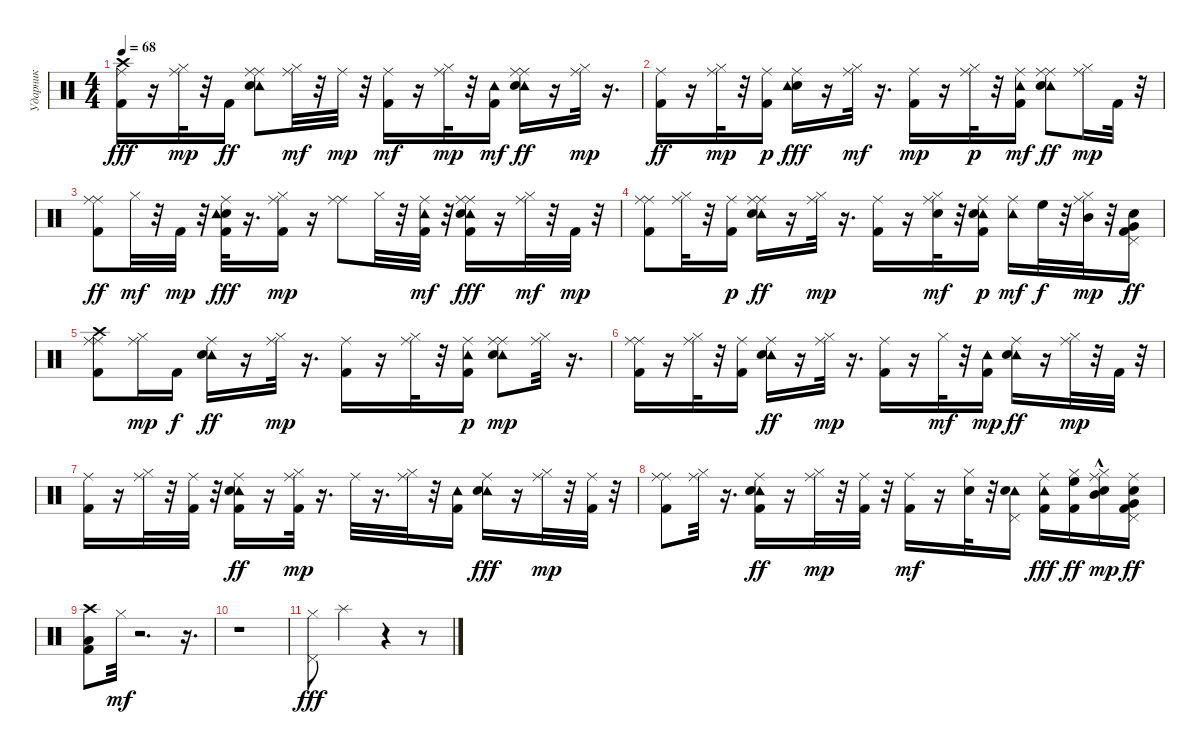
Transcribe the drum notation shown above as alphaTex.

\track ("Ударник" "Ударник") {instrument percussion}
\staff {score}
\articulation defaults
\ts (4 4)
\tempo 68
\clef neutral
\ks c
("Ride (middle)" "Kick (hit) 2" "Crash high (hit)").16{dy fff} r.16 ("Ride (middle)" "Hi-Hat (closed)").32{dy mp} r.32 "Kick (hit) 2".16{dy ff} ("Ride (middle)" "Ride (middle)" "Tambourine (hit)" "Electric Snare (hit)").8 ("Ride (middle)" "Hi-Hat (closed)").32{dy mf} r.32 "Ride (middle)".32{dy mp} r.32 ("Ride (middle)" "Kick (hit) 2").16{dy mf} r.16 ("Ride (middle)" "Hi-Hat (closed)").32{dy mp} r.32 ("Tambourine (hit)" "Kick (hit) 2").16{dy mf} ("Ride (middle)" "Ride (middle)" "Tambourine (hit)" "Electric Snare (hit)").16{dy ff} r.16 ("Ride (middle)" "Hi-Hat (closed)").32{dy mp} r.16{d} |
("Ride (middle)" "Kick (hit) 2").16{dy ff} r.16 ("Ride (middle)" "Hi-Hat (closed)").32{dy mp} r.32 ("Kick (hit) 2" "Ride (middle)").16{dy p} ("Ride (middle)" "Electric Snare (hit)" "Tambourine (hit)").16{dy fff} r.16 ("Ride (middle)" "Hi-Hat (closed)").32{dy mf} r.16{d} ("Ride (middle)" "Kick (hit) 2").16{dy mp} r.16 ("Hi-Hat (closed)" "Ride (middle)").32{dy p} r.32 ("Kick (hit) 2" "Ride (middle)" "Tambourine (hit)").16{dy mf} ("Ride (middle)" "Ride (middle)" "Tambourine (hit)" "Electric Snare (hit)").8{dy ff} ("Ride (middle)" "Hi-Hat (closed)").16{dy mp} "Kick (hit) 2".32 r.32 |
("Ride (middle)" "Ride (middle)" "Kick (hit) 2").8{dy ff} "Hi-Hat (closed)".32{dy mf} r.32 "Kick (hit) 2".32{dy mp} r.32 ("Ride (middle)" "Electric Snare (hit)" "Kick (hit) 2" "Tambourine (hit)").32{dy fff} r.16{d} ("Kick (hit) 2" "Hi-Hat (closed)" "Ride (middle)").16{dy mp} r.16 ("Ride (middle)" "Ride (middle)").8 "Hi-Hat (closed)".32 r.32 ("Kick (hit) 2" "Ride (middle)" "Tambourine (hit)").32{dy mf} r.32 ("Ride (middle)" "Kick (hit) 2" "Ride (middle)" "Tambourine (hit)" "Electric Snare (hit)").16{dy fff} r.16 ("Ride (middle)" "Hi-Hat (closed)").32{dy mf} r.32 "Kick (hit) 2".32{dy mp} r.32 |
("Kick (hit) 2" "Ride (middle)" "Ride (middle)").8 ("Ride (middle)" "Hi-Hat (closed)").32 r.32 ("Kick (hit) 2" "Ride (middle)").16{dy p} ("Ride (middle)" "Tambourine (hit)" "Ride (middle)" "Electric Snare (hit)").16{dy ff} r.16 ("Hi-Hat (closed)" "Ride (middle)").32{dy mp} r.16{d} ("Ride (middle)" "Kick (hit) 2").16 r.16 ("Ride (middle)" "Hi-Hat (closed)" "Electric Snare (hit)").32{dy mf} r.32 ("Kick (hit) 2" "Ride (middle)" "Tambourine (hit)" "Electric Snare (hit)").16{dy p} ("Tambourine (hit)" "Ride (middle)").16{dy mf} "High Floor Tom (hit)".32{dy f} r.32 ("Mid Tom (hit)" "Ride (middle)" "Hi-Hat (closed)").32{dy mp} r.32 ("Kick (hit) 2" "Pedal Hi-Hat (hit)" "Electric Snare (hit)" "Very Low Tom (hit)").16{dy ff} |
("Ride (middle)" "Ride (middle)" "Kick (hit) 2" "Crash high (hit)").8 ("Hi-Hat (closed)" "Ride (middle)").16{dy mp} "Kick (hit) 2".16{dy f} ("Ride (middle)" "Tambourine (hit)" "Electric Snare (hit)").16{dy ff} r.16 ("Hi-Hat (closed)" "Ride (middle)").32{dy mp} r.16{d} ("Kick (hit) 2" "Ride (middle)").16 r.16 ("Hi-Hat (closed)" "Ride (middle)").32 r.32 ("Kick (hit) 2" "Ride (middle)" "Tambourine (hit)").16{dy p} ("Tambourine (hit)" "Ride (middle)" "Ride (middle)" "Electric Snare (hit)").8{dy mp} ("Hi-Hat (closed)" "Ride (middle)").32 r.16{d} |
("Ride (middle)" "Kick (hit) 2" "Ride (middle)").16 r.16 ("Hi-Hat (closed)" "Ride (middle)").32 r.32 ("Ride (middle)" "Kick (hit) 2").16 ("Tambourine (hit)" "Ride (middle)" "Electric Snare (hit)").16{dy ff} r.16 ("Ride (middle)" "Hi-Hat (closed)").32{dy mp} r.16{d} ("Kick (hit) 2" "Ride (middle)").16 r.16 "Hi-Hat (closed)".32{dy mf} r.32 ("Kick (hit) 2" "Tambourine (hit)").16{dy mp} ("Tambourine (hit)" "Ride (middle)" "Electric Snare (hit)").16{dy ff} r.16 ("Ride (middle)" "Hi-Hat (closed)").32{dy mp} r.32 "Kick (hit) 2".32 r.32 |
("Kick (hit) 2" "Ride (middle)").16 r.16 ("Ride (middle)" "Hi-Hat (closed)").32 r.32 ("Ride (middle)" "Kick (hit) 2").32 r.32 ("Kick (hit) 2" "Ride (middle)" "Tambourine (hit)" "Electric Snare (hit)").16{dy ff} r.16 ("Hi-Hat (closed)" "Kick (hit) 2" "Ride (middle)").32{dy mp} r.16{d} "Ride (middle)".32 r.16{d} ("Ride (middle)" "Hi-Hat (closed)").32 r.32 ("Kick (hit) 2" "Tambourine (hit)").16 ("Ride (middle)" "Tambourine (hit)" "Electric Snare (hit)").16{dy fff} r.16 ("Ride (middle)" "Hi-Hat (closed)").32{dy mp} r.32 ("Kick (hit) 2" "Ride (middle)").32 r.32 |
("Kick (hit) 2" "Ride (middle)" "Ride (middle)").8 ("Ride (middle)" "Hi-Hat (closed)").32 r.16{d} ("Ride (middle)" "Tambourine (hit)" "Kick (hit) 2" "Electric Snare (hit)").16{dy ff} r.16 ("Hi-Hat (closed)" "Ride (middle)").32{dy mp} r.32 ("Ride (middle)" "Kick (hit) 2").32 r.32 ("Kick (hit) 2" "Ride (middle)").16{dy mf} r.16 ("Hi-Hat (closed)" "Electric Snare (hit)").32 r.32 ("Pedal Hi-Hat (hit)" "Tambourine (hit)" "Electric Snare (hit)").16 ("Kick (hit) 2" "Ride (middle)" "Tambourine (hit)").16{dy fff} ("Hi-Hat (closed)" "Kick (hit) 2" "High Floor Tom (hit)").16{dy ff} ("Mid Tom (hit)" "Ride (middle)" "Hi-Hat (closed)"{hac} "Electric Snare (hit)").16{dy mp} ("Ride (middle)" "Kick (hit) 2" "Pedal Hi-Hat (hit)" "Electric Snare (hit)" "Very Low Tom (hit)").16{dy ff} |
("Low Floor Tom (hit)" "Crash high (hit)" "Kick (hit) 2").8 "Hi-Hat (closed)".32{dy mf} r.2{d} r.16{d} |
r.1 |
("Hi-Hat (closed)" "Pedal Hi-Hat (hit)").8{dy fff} "Splash (hit)".2 r.4 r.8
